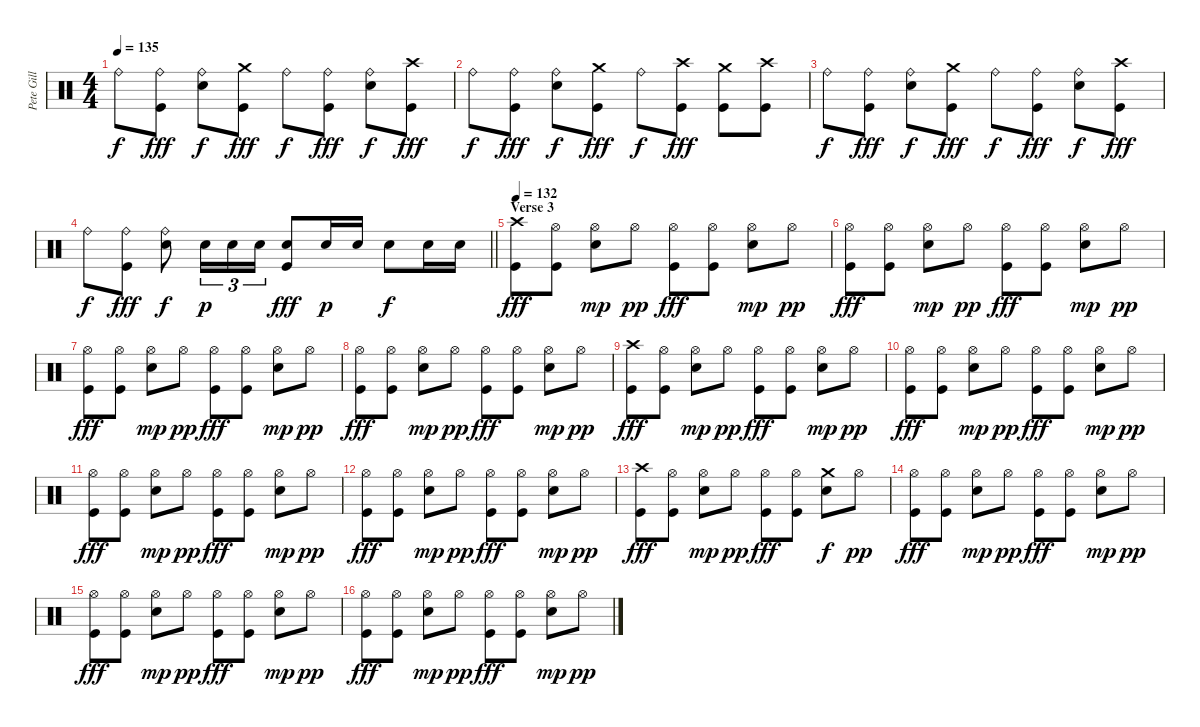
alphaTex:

\track ("Pete Gill" "Pete Gill") {instrument percussion}
\staff {score}
\articulation defaults
\ts (4 4)
\tempo 135
\clef neutral
\ks c "Ride (bell)".8{dy f}
("Ride (bell)" "Kick (hit)").8{dy fff} ("Ride (bell)" "Electric Snare (hit)").8{dy f} ("Crash medium (hit)" "Kick (hit)").8{dy fff} "Ride (bell)".8{dy f} ("Ride (bell)" "Kick (hit)").8{dy fff} ("Ride (bell)" "Electric Snare (hit)").8{dy f} ("Crash high (hit)" "Kick (hit)").8{dy fff} |
"Ride (bell)".8{dy f} ("Ride (bell)" "Kick (hit)").8{dy fff} ("Ride (bell)" "Electric Snare (hit)").8{dy f} ("Crash medium (hit)" "Kick (hit)").8{dy fff} "Ride (bell)".8{dy f} ("Crash high (hit)" "Kick (hit)").8{dy fff} ("Crash medium (hit)" "Kick (hit)").8 ("Crash high (hit)" "Kick (hit)").8 |
"Ride (bell)".8{dy f} ("Ride (bell)" "Kick (hit)").8{dy fff} ("Ride (bell)" "Electric Snare (hit)").8{dy f} ("Crash medium (hit)" "Kick (hit)").8{dy fff} "Ride (bell)".8{dy f} ("Ride (bell)" "Kick (hit)").8{dy fff} ("Ride (bell)" "Electric Snare (hit)").8{dy f} ("Crash high (hit)" "Kick (hit)").8{dy fff} |
\barLineRight lightlight "Ride (bell)".8{dy f}
("Ride (bell)" "Kick (hit)").8{dy fff} ("Ride (bell)" "Electric Snare (hit)").8{dy f} "Electric Snare (hit)".16{tu (3 2) dy p} "Electric Snare (hit)".16{tu (3 2)} "Electric Snare (hit)".16{tu (3 2)} ("Electric Snare (hit)" "Kick (hit)").8{dy fff} "Electric Snare (hit)".16{dy p} "Electric Snare (hit)".16 "Electric Snare (hit)".8{dy f} "Electric Snare (hit)".16 "Electric Snare (hit)".16 |
\section ("" "Verse 3")
\tempo 132
("Crash high (hit)" "Kick (hit)").8{dy fff} ("Hi-Hat (open)" "Kick (hit)").8 ("Hi-Hat (open)" "Electric Snare (hit)").8{dy mp} "Hi-Hat (open)".8{dy pp} ("Hi-Hat (open)" "Kick (hit)").8{dy fff} ("Hi-Hat (open)" "Kick (hit)").8 ("Hi-Hat (open)" "Electric Snare (hit)").8{dy mp} "Hi-Hat (open)".8{dy pp} |
("Hi-Hat (open)" "Kick (hit)").8{dy fff} ("Hi-Hat (open)" "Kick (hit)").8 ("Hi-Hat (open)" "Electric Snare (hit)").8{dy mp} "Hi-Hat (open)".8{dy pp} ("Hi-Hat (open)" "Kick (hit)").8{dy fff} ("Hi-Hat (open)" "Kick (hit)").8 ("Hi-Hat (open)" "Electric Snare (hit)").8{dy mp} "Hi-Hat (open)".8{dy pp} |
("Hi-Hat (open)" "Kick (hit)").8{dy fff} ("Hi-Hat (open)" "Kick (hit)").8 ("Hi-Hat (open)" "Electric Snare (hit)").8{dy mp} "Hi-Hat (open)".8{dy pp} ("Hi-Hat (open)" "Kick (hit)").8{dy fff} ("Hi-Hat (open)" "Kick (hit)").8 ("Hi-Hat (open)" "Electric Snare (hit)").8{dy mp} "Hi-Hat (open)".8{dy pp} |
("Hi-Hat (open)" "Kick (hit)").8{dy fff} ("Hi-Hat (open)" "Kick (hit)").8 ("Hi-Hat (open)" "Electric Snare (hit)").8{dy mp} "Hi-Hat (open)".8{dy pp} ("Hi-Hat (open)" "Kick (hit)").8{dy fff} ("Hi-Hat (open)" "Kick (hit)").8 ("Hi-Hat (open)" "Electric Snare (hit)").8{dy mp} "Hi-Hat (open)".8{dy pp} |
("Crash high (hit)" "Kick (hit)").8{dy fff} ("Hi-Hat (open)" "Kick (hit)").8 ("Hi-Hat (open)" "Electric Snare (hit)").8{dy mp} "Hi-Hat (open)".8{dy pp} ("Hi-Hat (open)" "Kick (hit)").8{dy fff} ("Hi-Hat (open)" "Kick (hit)").8 ("Hi-Hat (open)" "Electric Snare (hit)").8{dy mp} "Hi-Hat (open)".8{dy pp} |
("Hi-Hat (open)" "Kick (hit)").8{dy fff} ("Hi-Hat (open)" "Kick (hit)").8 ("Hi-Hat (open)" "Electric Snare (hit)").8{dy mp} "Hi-Hat (open)".8{dy pp} ("Hi-Hat (open)" "Kick (hit)").8{dy fff} ("Hi-Hat (open)" "Kick (hit)").8 ("Hi-Hat (open)" "Electric Snare (hit)").8{dy mp} "Hi-Hat (open)".8{dy pp} |
("Hi-Hat (open)" "Kick (hit)").8{dy fff} ("Hi-Hat (open)" "Kick (hit)").8 ("Hi-Hat (open)" "Electric Snare (hit)").8{dy mp} "Hi-Hat (open)".8{dy pp} ("Hi-Hat (open)" "Kick (hit)").8{dy fff} ("Hi-Hat (open)" "Kick (hit)").8 ("Hi-Hat (open)" "Electric Snare (hit)").8{dy mp} "Hi-Hat (open)".8{dy pp} |
("Hi-Hat (open)" "Kick (hit)").8{dy fff} ("Hi-Hat (open)" "Kick (hit)").8 ("Hi-Hat (open)" "Electric Snare (hit)").8{dy mp} "Hi-Hat (open)".8{dy pp} ("Hi-Hat (open)" "Kick (hit)").8{dy fff} ("Hi-Hat (open)" "Kick (hit)").8 ("Hi-Hat (open)" "Electric Snare (hit)").8{dy mp} "Hi-Hat (open)".8{dy pp} |
("Crash high (hit)" "Kick (hit)").8{dy fff} ("Hi-Hat (open)" "Kick (hit)").8 ("Hi-Hat (open)" "Electric Snare (hit)").8{dy mp} "Hi-Hat (open)".8{dy pp} ("Hi-Hat (open)" "Kick (hit)").8{dy fff} ("Hi-Hat (open)" "Kick (hit)").8 ("Crash medium (hit)" "Electric Snare (hit)").8{dy f} "Hi-Hat (open)".8{dy pp} |
("Hi-Hat (open)" "Kick (hit)").8{dy fff} ("Hi-Hat (open)" "Kick (hit)").8 ("Hi-Hat (open)" "Electric Snare (hit)").8{dy mp} "Hi-Hat (open)".8{dy pp} ("Hi-Hat (open)" "Kick (hit)").8{dy fff} ("Hi-Hat (open)" "Kick (hit)").8 ("Hi-Hat (open)" "Electric Snare (hit)").8{dy mp} "Hi-Hat (open)".8{dy pp} |
("Hi-Hat (open)" "Kick (hit)").8{dy fff} ("Hi-Hat (open)" "Kick (hit)").8 ("Hi-Hat (open)" "Electric Snare (hit)").8{dy mp} "Hi-Hat (open)".8{dy pp} ("Hi-Hat (open)" "Kick (hit)").8{dy fff} ("Hi-Hat (open)" "Kick (hit)").8 ("Hi-Hat (open)" "Electric Snare (hit)").8{dy mp} "Hi-Hat (open)".8{dy pp} |
("Hi-Hat (open)" "Kick (hit)").8{dy fff} ("Hi-Hat (open)" "Kick (hit)").8 ("Hi-Hat (open)" "Electric Snare (hit)").8{dy mp} "Hi-Hat (open)".8{dy pp} ("Hi-Hat (open)" "Kick (hit)").8{dy fff} ("Hi-Hat (open)" "Kick (hit)").8 ("Hi-Hat (open)" "Electric Snare (hit)").8{dy mp} "Hi-Hat (open)".8{dy pp}
